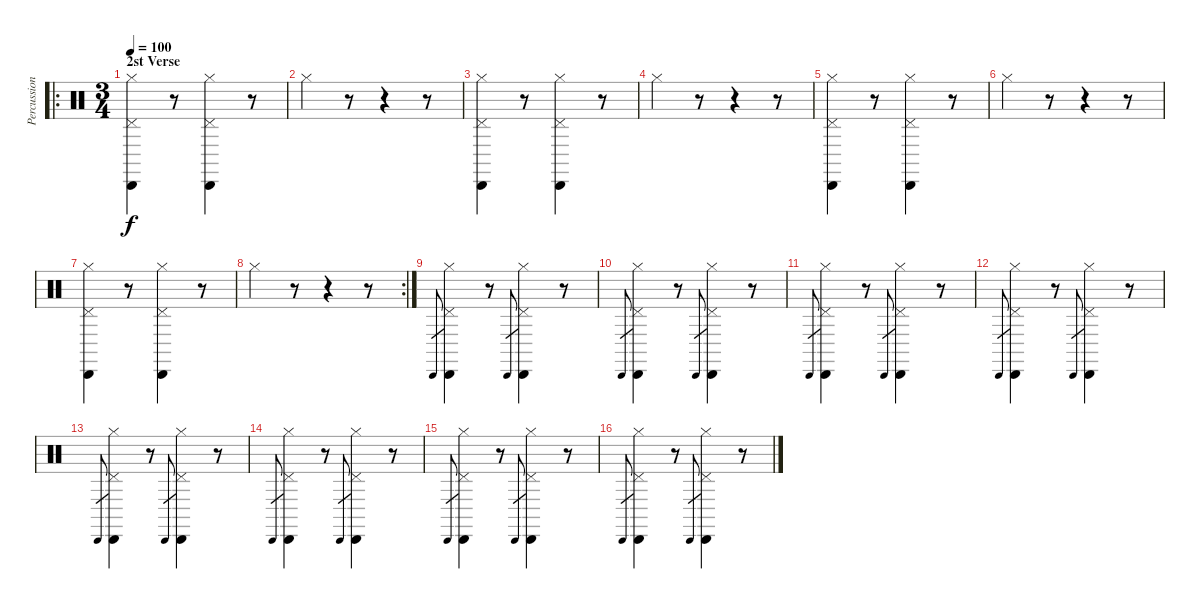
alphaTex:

\track ("Percussion" "Percussion") {instrument percussion}
\staff {score}
\articulation defaults
\ro
\ts (3 4)
\section ("" "2st Verse")
\tempo 100
\clef neutral
\ks c
("Pedal Hi-Hat (hit)" "Cabasa (hit)" "Hi-Hat (closed)").4{dy f} r.8 ("Pedal Hi-Hat (hit)" "Cabasa (hit)" "Hi-Hat (closed)").4 r.8 |
"Hi-Hat (closed)".4 r.8 r.4 r.8 |
("Pedal Hi-Hat (hit)" "Cabasa (hit)" "Hi-Hat (closed)").4 r.8 ("Pedal Hi-Hat (hit)" "Cabasa (hit)" "Hi-Hat (closed)").4 r.8 |
"Hi-Hat (closed)".4 r.8 r.4 r.8 |
("Pedal Hi-Hat (hit)" "Cabasa (hit)" "Hi-Hat (closed)").4 r.8 ("Pedal Hi-Hat (hit)" "Cabasa (hit)" "Hi-Hat (closed)").4 r.8 |
"Hi-Hat (closed)".4 r.8 r.4 r.8 |
("Pedal Hi-Hat (hit)" "Cabasa (hit)" "Hi-Hat (closed)").4 r.8 ("Pedal Hi-Hat (hit)" "Cabasa (hit)" "Hi-Hat (closed)").4 r.8 |
\rc 2 "Hi-Hat (closed)".4
r.8 r.4 r.8 |
"Cabasa (hit)".8{gr} ("Pedal Hi-Hat (hit)" "Cabasa (hit)" "Hi-Hat (closed)").4 r.8 "Cabasa (hit)".8{gr} ("Pedal Hi-Hat (hit)" "Cabasa (hit)" "Hi-Hat (closed)").4 r.8 |
"Cabasa (hit)".8{gr} ("Pedal Hi-Hat (hit)" "Cabasa (hit)" "Hi-Hat (closed)").4 r.8 "Cabasa (hit)".8{gr} ("Pedal Hi-Hat (hit)" "Cabasa (hit)" "Hi-Hat (closed)").4 r.8 |
"Cabasa (hit)".8{gr} ("Pedal Hi-Hat (hit)" "Cabasa (hit)" "Hi-Hat (closed)").4 r.8 "Cabasa (hit)".8{gr} ("Pedal Hi-Hat (hit)" "Cabasa (hit)" "Hi-Hat (closed)").4 r.8 |
"Cabasa (hit)".8{gr} ("Pedal Hi-Hat (hit)" "Cabasa (hit)" "Hi-Hat (closed)").4 r.8 "Cabasa (hit)".8{gr} ("Pedal Hi-Hat (hit)" "Cabasa (hit)" "Hi-Hat (closed)").4 r.8 |
"Cabasa (hit)".8{gr} ("Pedal Hi-Hat (hit)" "Cabasa (hit)" "Hi-Hat (closed)").4 r.8 "Cabasa (hit)".8{gr} ("Pedal Hi-Hat (hit)" "Cabasa (hit)" "Hi-Hat (closed)").4 r.8 |
"Cabasa (hit)".8{gr} ("Pedal Hi-Hat (hit)" "Cabasa (hit)" "Hi-Hat (closed)").4 r.8 "Cabasa (hit)".8{gr} ("Pedal Hi-Hat (hit)" "Cabasa (hit)" "Hi-Hat (closed)").4 r.8 |
"Cabasa (hit)".8{gr} ("Pedal Hi-Hat (hit)" "Cabasa (hit)" "Hi-Hat (closed)").4 r.8 "Cabasa (hit)".8{gr} ("Pedal Hi-Hat (hit)" "Cabasa (hit)" "Hi-Hat (closed)").4 r.8 |
"Cabasa (hit)".8{gr} ("Pedal Hi-Hat (hit)" "Cabasa (hit)" "Hi-Hat (closed)").4 r.8 "Cabasa (hit)".8{gr} ("Pedal Hi-Hat (hit)" "Cabasa (hit)" "Hi-Hat (closed)").4 r.8
